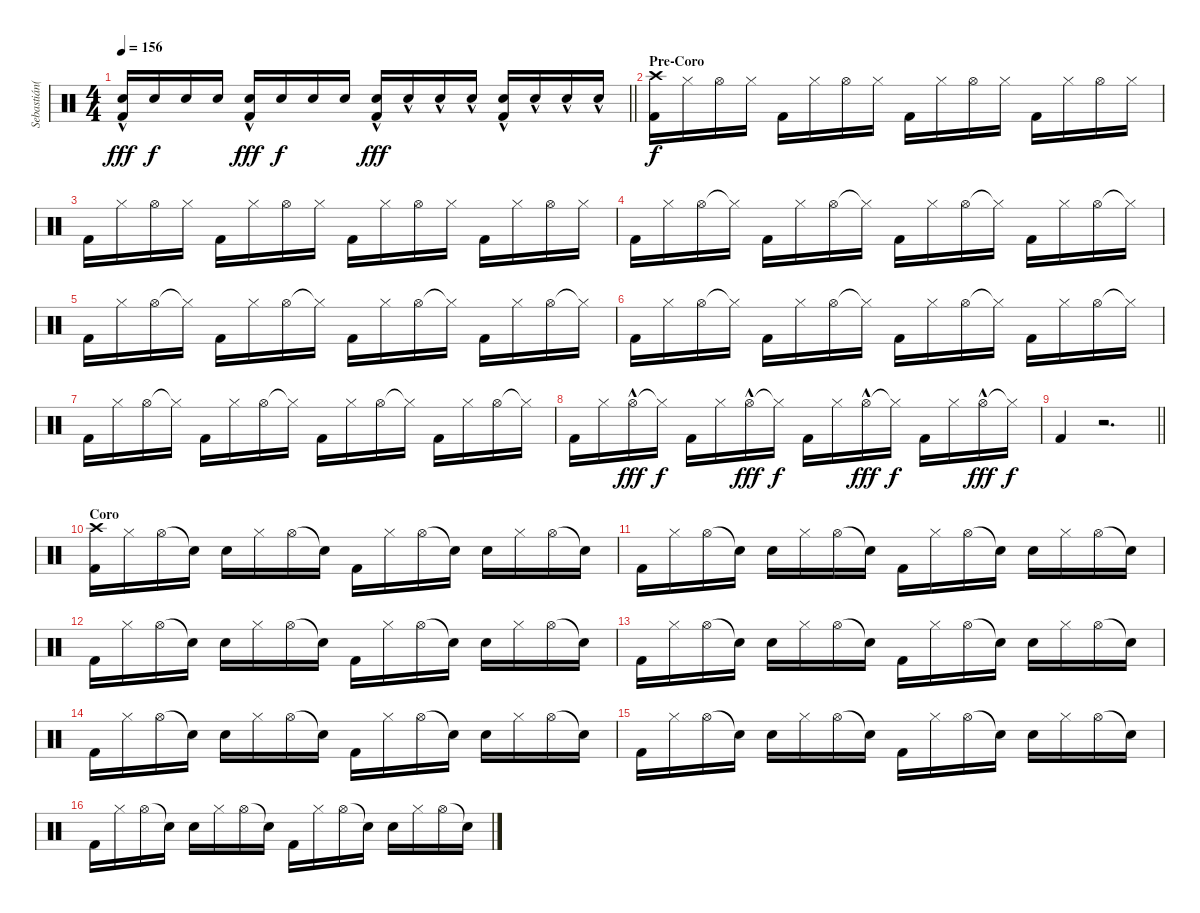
\track ("Sebastián(Percusión)" "Sebastián(") {instrument percussion}
\staff {score}
\articulation defaults
\ts (4 4)
\tempo 156
\clef neutral
\barLineRight lightlight
\ks c
("Electric Snare (hit)"{hac} "Kick (hit) 2").16{dy fff} "Electric Snare (hit)".16{dy f} "Electric Snare (hit)".16 "Electric Snare (hit)".16 ("Electric Snare (hit)"{hac} "Kick (hit) 2").16{dy fff} "Electric Snare (hit)".16{dy f} "Electric Snare (hit)".16 "Electric Snare (hit)".16 ("Electric Snare (hit)"{hac} "Kick (hit) 2").16{dy fff} "Electric Snare (hit)"{hac}.16 "Electric Snare (hit)"{hac}.16 "Electric Snare (hit)"{hac}.16 ("Electric Snare (hit)"{hac} "Kick (hit) 2").16 "Electric Snare (hit)"{hac}.16 "Electric Snare (hit)"{hac}.16 "Electric Snare (hit)"{hac}.16 |
\section ("" "Pre-Coro")
("Crash high (hit)" "Kick (hit) 2").16{dy f} "Hi-Hat (closed)".16 "Hi-Hat (open)".16 "Hi-Hat (closed)".16 "Kick (hit) 2".16 "Hi-Hat (closed)".16 "Hi-Hat (open)".16 "Hi-Hat (closed)".16 "Kick (hit) 2".16 "Hi-Hat (closed)".16 "Hi-Hat (open)".16 "Hi-Hat (closed)".16 "Kick (hit) 2".16 "Hi-Hat (closed)".16 "Hi-Hat (open)".16 "Hi-Hat (closed)".16 |
"Kick (hit) 2".16 "Hi-Hat (closed)".16 "Hi-Hat (open)".16 "Hi-Hat (closed)".16 "Kick (hit) 2".16 "Hi-Hat (closed)".16 "Hi-Hat (open)".16 "Hi-Hat (closed)".16 "Kick (hit) 2".16 "Hi-Hat (closed)".16 "Hi-Hat (open)".16 "Hi-Hat (closed)".16 "Kick (hit) 2".16 "Hi-Hat (closed)".16 "Hi-Hat (open)".16 "Hi-Hat (closed)".16 |
"Kick (hit) 2".16 "Hi-Hat (closed)".16 "Hi-Hat (open)".16 "Hi-Hat (closed)"{t}.16 "Kick (hit) 2".16 "Hi-Hat (closed)".16 "Hi-Hat (open)".16 "Hi-Hat (closed)"{t}.16 "Kick (hit) 2".16 "Hi-Hat (closed)".16 "Hi-Hat (open)".16 "Hi-Hat (closed)"{t}.16 "Kick (hit) 2".16 "Hi-Hat (closed)".16 "Hi-Hat (open)".16 "Hi-Hat (closed)"{t}.16 |
"Kick (hit) 2".16 "Hi-Hat (closed)".16 "Hi-Hat (open)".16 "Hi-Hat (closed)"{t}.16 "Kick (hit) 2".16 "Hi-Hat (closed)".16 "Hi-Hat (open)".16 "Hi-Hat (closed)"{t}.16 "Kick (hit) 2".16 "Hi-Hat (closed)".16 "Hi-Hat (open)".16 "Hi-Hat (closed)"{t}.16 "Kick (hit) 2".16 "Hi-Hat (closed)".16 "Hi-Hat (open)".16 "Hi-Hat (closed)"{t}.16 |
"Kick (hit) 2".16 "Hi-Hat (closed)".16 "Hi-Hat (open)".16 "Hi-Hat (closed)"{t}.16 "Kick (hit) 2".16 "Hi-Hat (closed)".16 "Hi-Hat (open)".16 "Hi-Hat (closed)"{t}.16 "Kick (hit) 2".16 "Hi-Hat (closed)".16 "Hi-Hat (open)".16 "Hi-Hat (closed)"{t}.16 "Kick (hit) 2".16 "Hi-Hat (closed)".16 "Hi-Hat (open)".16 "Hi-Hat (closed)"{t}.16 |
"Kick (hit) 2".16 "Hi-Hat (closed)".16 "Hi-Hat (open)".16 "Hi-Hat (closed)"{t}.16 "Kick (hit) 2".16 "Hi-Hat (closed)".16 "Hi-Hat (open)".16 "Hi-Hat (closed)"{t}.16 "Kick (hit) 2".16 "Hi-Hat (closed)".16 "Hi-Hat (open)".16 "Hi-Hat (closed)"{t}.16 "Kick (hit) 2".16 "Hi-Hat (closed)".16 "Hi-Hat (open)".16 "Hi-Hat (closed)"{t}.16 |
"Kick (hit) 2".16 "Hi-Hat (closed)".16 "Hi-Hat (open)"{hac}.16{dy fff} "Hi-Hat (closed)"{t}.16{dy f} "Kick (hit) 2".16 "Hi-Hat (closed)".16 "Hi-Hat (open)"{hac}.16{dy fff} "Hi-Hat (closed)"{t}.16{dy f} "Kick (hit) 2".16 "Hi-Hat (closed)".16 "Hi-Hat (open)"{hac}.16{dy fff} "Hi-Hat (closed)"{t}.16{dy f} "Kick (hit) 2".16 "Hi-Hat (closed)".16 "Hi-Hat (open)"{hac}.16{dy fff} "Hi-Hat (closed)"{t}.16{dy f} |
\barLineRight lightlight "Kick (hit) 2".4
r.2{d} |
\section ("" "Coro")
("Crash high (hit)" "Kick (hit) 2").16 "Hi-Hat (closed)".16 "Hi-Hat (open)".16 "Snare (hit)"{t}.16 "Electric Snare (hit)".16 "Hi-Hat (closed)".16 "Hi-Hat (open)".16 "Snare (hit)"{t}.16 "Kick (hit) 2".16 "Hi-Hat (closed)".16 "Hi-Hat (open)".16 "Snare (hit)"{t}.16 "Electric Snare (hit)".16 "Hi-Hat (closed)".16 "Hi-Hat (open)".16 "Snare (hit)"{t}.16 |
"Kick (hit) 2".16 "Hi-Hat (closed)".16 "Hi-Hat (open)".16 "Snare (hit)"{t}.16 "Electric Snare (hit)".16 "Hi-Hat (closed)".16 "Hi-Hat (open)".16 "Snare (hit)"{t}.16 "Kick (hit) 2".16 "Hi-Hat (closed)".16 "Hi-Hat (open)".16 "Snare (hit)"{t}.16 "Electric Snare (hit)".16 "Hi-Hat (closed)".16 "Hi-Hat (open)".16 "Snare (hit)"{t}.16 |
"Kick (hit) 2".16 "Hi-Hat (closed)".16 "Hi-Hat (open)".16 "Snare (hit)"{t}.16 "Electric Snare (hit)".16 "Hi-Hat (closed)".16 "Hi-Hat (open)".16 "Snare (hit)"{t}.16 "Kick (hit) 2".16 "Hi-Hat (closed)".16 "Hi-Hat (open)".16 "Snare (hit)"{t}.16 "Electric Snare (hit)".16 "Hi-Hat (closed)".16 "Hi-Hat (open)".16 "Snare (hit)"{t}.16 |
"Kick (hit) 2".16 "Hi-Hat (closed)".16 "Hi-Hat (open)".16 "Snare (hit)"{t}.16 "Electric Snare (hit)".16 "Hi-Hat (closed)".16 "Hi-Hat (open)".16 "Snare (hit)"{t}.16 "Kick (hit) 2".16 "Hi-Hat (closed)".16 "Hi-Hat (open)".16 "Snare (hit)"{t}.16 "Electric Snare (hit)".16 "Hi-Hat (closed)".16 "Hi-Hat (open)".16 "Snare (hit)"{t}.16 |
"Kick (hit) 2".16 "Hi-Hat (closed)".16 "Hi-Hat (open)".16 "Snare (hit)"{t}.16 "Electric Snare (hit)".16 "Hi-Hat (closed)".16 "Hi-Hat (open)".16 "Snare (hit)"{t}.16 "Kick (hit) 2".16 "Hi-Hat (closed)".16 "Hi-Hat (open)".16 "Snare (hit)"{t}.16 "Electric Snare (hit)".16 "Hi-Hat (closed)".16 "Hi-Hat (open)".16 "Snare (hit)"{t}.16 |
"Kick (hit) 2".16 "Hi-Hat (closed)".16 "Hi-Hat (open)".16 "Snare (hit)"{t}.16 "Electric Snare (hit)".16 "Hi-Hat (closed)".16 "Hi-Hat (open)".16 "Snare (hit)"{t}.16 "Kick (hit) 2".16 "Hi-Hat (closed)".16 "Hi-Hat (open)".16 "Snare (hit)"{t}.16 "Electric Snare (hit)".16 "Hi-Hat (closed)".16 "Hi-Hat (open)".16 "Snare (hit)"{t}.16 |
"Kick (hit) 2".16 "Hi-Hat (closed)".16 "Hi-Hat (open)".16 "Snare (hit)"{t}.16 "Electric Snare (hit)".16 "Hi-Hat (closed)".16 "Hi-Hat (open)".16 "Snare (hit)"{t}.16 "Kick (hit) 2".16 "Hi-Hat (closed)".16 "Hi-Hat (open)".16 "Snare (hit)"{t}.16 "Electric Snare (hit)".16 "Hi-Hat (closed)".16 "Hi-Hat (open)".16 "Snare (hit)"{t}.16
